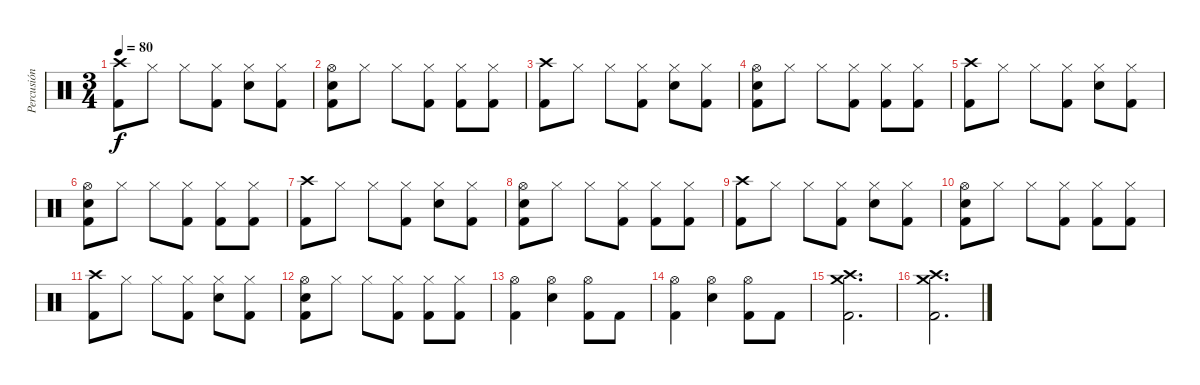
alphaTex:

\track ("Percusión" "Percusión") {instrument percussion}
\staff {score}
\articulation defaults
\ts (3 4)
\tempo 80
\clef neutral
\ks c
("Crash high (hit)" "Kick (hit) 2").8{dy f} "Hi-Hat (closed)".8 "Hi-Hat (closed)".8 ("Hi-Hat (closed)" "Kick (hit) 2").8 ("Hi-Hat (closed)" "Electric Snare (hit)").8 ("Hi-Hat (closed)" "Kick (hit) 2").8 |
("Hi-Hat (open)" "Electric Snare (hit)" "Kick (hit) 2").8 "Hi-Hat (closed)".8 "Hi-Hat (closed)".8 ("Hi-Hat (closed)" "Kick (hit) 2").8 ("Hi-Hat (closed)" "Kick (hit) 2").8 ("Hi-Hat (closed)" "Kick (hit) 2").8 |
("Crash high (hit)" "Kick (hit) 2").8 "Hi-Hat (closed)".8 "Hi-Hat (closed)".8 ("Hi-Hat (closed)" "Kick (hit) 2").8 ("Hi-Hat (closed)" "Electric Snare (hit)").8 ("Hi-Hat (closed)" "Kick (hit) 2").8 |
("Hi-Hat (open)" "Electric Snare (hit)" "Kick (hit) 2").8 "Hi-Hat (closed)".8 "Hi-Hat (closed)".8 ("Hi-Hat (closed)" "Kick (hit) 2").8 ("Hi-Hat (closed)" "Kick (hit) 2").8 ("Hi-Hat (closed)" "Kick (hit) 2").8 |
("Crash high (hit)" "Kick (hit) 2").8 "Hi-Hat (closed)".8 "Hi-Hat (closed)".8 ("Hi-Hat (closed)" "Kick (hit) 2").8 ("Hi-Hat (closed)" "Electric Snare (hit)").8 ("Hi-Hat (closed)" "Kick (hit) 2").8 |
("Hi-Hat (open)" "Electric Snare (hit)" "Kick (hit) 2").8 "Hi-Hat (closed)".8 "Hi-Hat (closed)".8 ("Hi-Hat (closed)" "Kick (hit) 2").8 ("Hi-Hat (closed)" "Kick (hit) 2").8 ("Hi-Hat (closed)" "Kick (hit) 2").8 |
("Crash high (hit)" "Kick (hit) 2").8 "Hi-Hat (closed)".8 "Hi-Hat (closed)".8 ("Hi-Hat (closed)" "Kick (hit) 2").8 ("Hi-Hat (closed)" "Electric Snare (hit)").8 ("Hi-Hat (closed)" "Kick (hit) 2").8 |
("Hi-Hat (open)" "Electric Snare (hit)" "Kick (hit) 2").8 "Hi-Hat (closed)".8 "Hi-Hat (closed)".8 ("Hi-Hat (closed)" "Kick (hit) 2").8 ("Hi-Hat (closed)" "Kick (hit) 2").8 ("Hi-Hat (closed)" "Kick (hit) 2").8 |
("Crash high (hit)" "Kick (hit) 2").8 "Hi-Hat (closed)".8 "Hi-Hat (closed)".8 ("Hi-Hat (closed)" "Kick (hit) 2").8 ("Hi-Hat (closed)" "Electric Snare (hit)").8 ("Hi-Hat (closed)" "Kick (hit) 2").8 |
("Hi-Hat (open)" "Electric Snare (hit)" "Kick (hit) 2").8 "Hi-Hat (closed)".8 "Hi-Hat (closed)".8 ("Hi-Hat (closed)" "Kick (hit) 2").8 ("Hi-Hat (closed)" "Kick (hit) 2").8 ("Hi-Hat (closed)" "Kick (hit) 2").8 |
("Crash high (hit)" "Kick (hit) 2").8 "Hi-Hat (closed)".8 "Hi-Hat (closed)".8 ("Hi-Hat (closed)" "Kick (hit) 2").8 ("Hi-Hat (closed)" "Electric Snare (hit)").8 ("Hi-Hat (closed)" "Kick (hit) 2").8 |
("Hi-Hat (open)" "Electric Snare (hit)" "Kick (hit) 2").8 "Hi-Hat (closed)".8 "Hi-Hat (closed)".8 ("Hi-Hat (closed)" "Kick (hit) 2").8 ("Hi-Hat (closed)" "Kick (hit) 2").8 ("Hi-Hat (closed)" "Kick (hit) 2").8 |
("Hi-Hat (open)" "Kick (hit) 2").4 ("Hi-Hat (open)" "Electric Snare (hit)").4 ("Hi-Hat (open)" "Kick (hit) 2").8 "Kick (hit) 2".8 |
("Hi-Hat (open)" "Kick (hit) 2").4 ("Hi-Hat (open)" "Electric Snare (hit)").4 ("Hi-Hat (open)" "Kick (hit) 2").8 "Kick (hit) 2".8 |
("Crash medium (hit)" "Crash high (hit)" "Kick (hit) 2").2{d} |
("Crash medium (hit)" "Crash high (hit)" "Kick (hit) 2").2{d}
